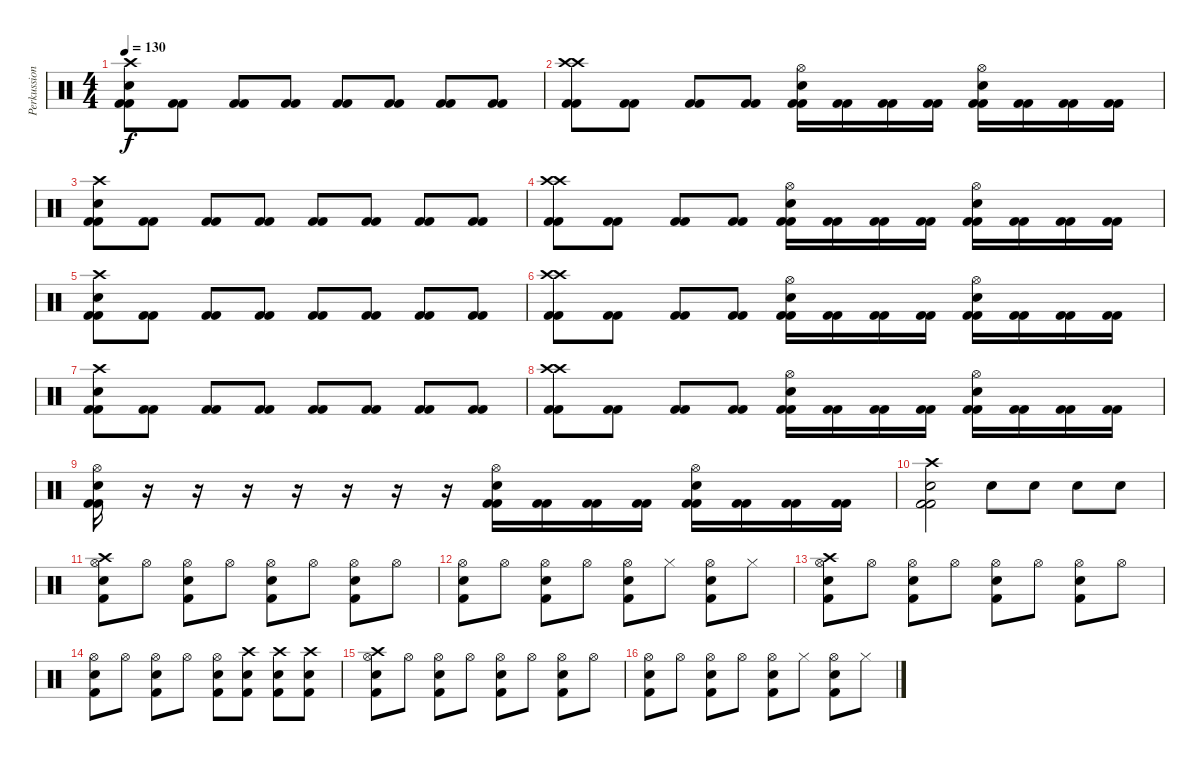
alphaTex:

\track ("Perkussion" "Perkussion") {instrument percussion}
\staff {score}
\articulation defaults
\ts (4 4)
\tempo 130
\clef neutral
\ks c
("Crash high (hit)" "Electric Snare (hit)" "Kick (hit) 2" "Kick (hit) 2").8{dy f} ("Kick (hit) 2" "Kick (hit) 2").8 ("Kick (hit) 2" "Kick (hit) 2").8 ("Kick (hit) 2" "Kick (hit) 2").8 ("Kick (hit) 2" "Kick (hit) 2").8 ("Kick (hit) 2" "Kick (hit) 2").8 ("Kick (hit) 2" "Kick (hit) 2").8 ("Kick (hit) 2" "Kick (hit) 2").8 |
("Crash high (hit)" "Crash high (hit)" "Kick (hit) 2" "Kick (hit) 2").8 ("Kick (hit) 2" "Kick (hit) 2").8 ("Kick (hit) 2" "Kick (hit) 2").8 ("Kick (hit) 2" "Kick (hit) 2").8 ("Hi-Hat (open)" "Electric Snare (hit)" "Kick (hit) 2" "Kick (hit) 2").16 ("Kick (hit) 2" "Kick (hit) 2").16 ("Kick (hit) 2" "Kick (hit) 2").16 ("Kick (hit) 2" "Kick (hit) 2").16 ("Hi-Hat (open)" "Electric Snare (hit)" "Kick (hit) 2" "Kick (hit) 2").16 ("Kick (hit) 2" "Kick (hit) 2").16 ("Kick (hit) 2" "Kick (hit) 2").16 ("Kick (hit) 2" "Kick (hit) 2").16 |
("Crash high (hit)" "Electric Snare (hit)" "Kick (hit) 2" "Kick (hit) 2").8 ("Kick (hit) 2" "Kick (hit) 2").8 ("Kick (hit) 2" "Kick (hit) 2").8 ("Kick (hit) 2" "Kick (hit) 2").8 ("Kick (hit) 2" "Kick (hit) 2").8 ("Kick (hit) 2" "Kick (hit) 2").8 ("Kick (hit) 2" "Kick (hit) 2").8 ("Kick (hit) 2" "Kick (hit) 2").8 |
("Crash high (hit)" "Crash high (hit)" "Kick (hit) 2" "Kick (hit) 2").8 ("Kick (hit) 2" "Kick (hit) 2").8 ("Kick (hit) 2" "Kick (hit) 2").8 ("Kick (hit) 2" "Kick (hit) 2").8 ("Hi-Hat (open)" "Electric Snare (hit)" "Kick (hit) 2" "Kick (hit) 2").16 ("Kick (hit) 2" "Kick (hit) 2").16 ("Kick (hit) 2" "Kick (hit) 2").16 ("Kick (hit) 2" "Kick (hit) 2").16 ("Hi-Hat (open)" "Electric Snare (hit)" "Kick (hit) 2" "Kick (hit) 2").16 ("Kick (hit) 2" "Kick (hit) 2").16 ("Kick (hit) 2" "Kick (hit) 2").16 ("Kick (hit) 2" "Kick (hit) 2").16 |
("Crash high (hit)" "Electric Snare (hit)" "Kick (hit) 2" "Kick (hit) 2").8 ("Kick (hit) 2" "Kick (hit) 2").8 ("Kick (hit) 2" "Kick (hit) 2").8 ("Kick (hit) 2" "Kick (hit) 2").8 ("Kick (hit) 2" "Kick (hit) 2").8 ("Kick (hit) 2" "Kick (hit) 2").8 ("Kick (hit) 2" "Kick (hit) 2").8 ("Kick (hit) 2" "Kick (hit) 2").8 |
("Crash high (hit)" "Crash high (hit)" "Kick (hit) 2" "Kick (hit) 2").8 ("Kick (hit) 2" "Kick (hit) 2").8 ("Kick (hit) 2" "Kick (hit) 2").8 ("Kick (hit) 2" "Kick (hit) 2").8 ("Hi-Hat (open)" "Electric Snare (hit)" "Kick (hit) 2" "Kick (hit) 2").16 ("Kick (hit) 2" "Kick (hit) 2").16 ("Kick (hit) 2" "Kick (hit) 2").16 ("Kick (hit) 2" "Kick (hit) 2").16 ("Hi-Hat (open)" "Electric Snare (hit)" "Kick (hit) 2" "Kick (hit) 2").16 ("Kick (hit) 2" "Kick (hit) 2").16 ("Kick (hit) 2" "Kick (hit) 2").16 ("Kick (hit) 2" "Kick (hit) 2").16 |
("Crash high (hit)" "Electric Snare (hit)" "Kick (hit) 2" "Kick (hit) 2").8 ("Kick (hit) 2" "Kick (hit) 2").8 ("Kick (hit) 2" "Kick (hit) 2").8 ("Kick (hit) 2" "Kick (hit) 2").8 ("Kick (hit) 2" "Kick (hit) 2").8 ("Kick (hit) 2" "Kick (hit) 2").8 ("Kick (hit) 2" "Kick (hit) 2").8 ("Kick (hit) 2" "Kick (hit) 2").8 |
("Crash high (hit)" "Crash high (hit)" "Kick (hit) 2" "Kick (hit) 2").8 ("Kick (hit) 2" "Kick (hit) 2").8 ("Kick (hit) 2" "Kick (hit) 2").8 ("Kick (hit) 2" "Kick (hit) 2").8 ("Hi-Hat (open)" "Electric Snare (hit)" "Kick (hit) 2" "Kick (hit) 2").16 ("Kick (hit) 2" "Kick (hit) 2").16 ("Kick (hit) 2" "Kick (hit) 2").16 ("Kick (hit) 2" "Kick (hit) 2").16 ("Hi-Hat (open)" "Electric Snare (hit)" "Kick (hit) 2" "Kick (hit) 2").16 ("Kick (hit) 2" "Kick (hit) 2").16 ("Kick (hit) 2" "Kick (hit) 2").16 ("Kick (hit) 2" "Kick (hit) 2").16 |
("Hi-Hat (open)" "Electric Snare (hit)" "Kick (hit) 2" "Kick (hit) 2").16 r.16 r.16 r.16 r.16 r.16 r.16 r.16 ("Hi-Hat (open)" "Electric Snare (hit)" "Kick (hit) 2" "Kick (hit) 2").16 ("Kick (hit) 2" "Kick (hit) 2").16 ("Kick (hit) 2" "Kick (hit) 2").16 ("Kick (hit) 2" "Kick (hit) 2").16 ("Hi-Hat (open)" "Electric Snare (hit)" "Kick (hit) 2" "Kick (hit) 2").16 ("Kick (hit) 2" "Kick (hit) 2").16 ("Kick (hit) 2" "Kick (hit) 2").16 ("Kick (hit) 2" "Kick (hit) 2").16 |
("Crash high (hit)" "Electric Snare (hit)" "Kick (hit) 2" "Kick (hit) 2").2 "Electric Snare (hit)".8 "Electric Snare (hit)".8 "Electric Snare (hit)".8 "Electric Snare (hit)".8 |
("Hi-Hat (open)" "Crash high (hit)" "Electric Snare (hit)" "Kick (hit) 2").8 "Hi-Hat (open)".8 ("Hi-Hat (open)" "Electric Snare (hit)" "Kick (hit) 2").8 "Hi-Hat (open)".8 ("Hi-Hat (open)" "Electric Snare (hit)" "Kick (hit) 2").8 "Hi-Hat (open)".8 ("Hi-Hat (open)" "Electric Snare (hit)" "Kick (hit) 2").8 "Hi-Hat (open)".8 |
("Hi-Hat (open)" "Electric Snare (hit)" "Kick (hit) 2").8 "Hi-Hat (open)".8 ("Hi-Hat (open)" "Electric Snare (hit)" "Kick (hit) 2").8 "Hi-Hat (open)".8 ("Hi-Hat (open)" "Electric Snare (hit)" "Kick (hit) 2").8 "Hi-Hat (closed)".8 ("Hi-Hat (open)" "Electric Snare (hit)" "Kick (hit) 2").8 "Hi-Hat (closed)".8 |
("Hi-Hat (open)" "Crash high (hit)" "Electric Snare (hit)" "Kick (hit) 2").8 "Hi-Hat (open)".8 ("Hi-Hat (open)" "Electric Snare (hit)" "Kick (hit) 2").8 "Hi-Hat (open)".8 ("Hi-Hat (open)" "Electric Snare (hit)" "Kick (hit) 2").8 "Hi-Hat (open)".8 ("Hi-Hat (open)" "Electric Snare (hit)" "Kick (hit) 2").8 "Hi-Hat (open)".8 |
("Hi-Hat (open)" "Electric Snare (hit)" "Kick (hit) 2").8 "Hi-Hat (open)".8 ("Hi-Hat (open)" "Electric Snare (hit)" "Kick (hit) 2").8 "Hi-Hat (open)".8 ("Hi-Hat (open)" "Electric Snare (hit)" "Kick (hit) 2").8 ("Crash high (hit)" "Electric Snare (hit)" "Kick (hit) 2").8 ("Crash high (hit)" "Electric Snare (hit)" "Kick (hit) 2").8 ("Crash high (hit)" "Electric Snare (hit)" "Kick (hit) 2").8 |
("Hi-Hat (open)" "Crash high (hit)" "Electric Snare (hit)" "Kick (hit) 2").8 "Hi-Hat (open)".8 ("Hi-Hat (open)" "Electric Snare (hit)" "Kick (hit) 2").8 "Hi-Hat (open)".8 ("Hi-Hat (open)" "Electric Snare (hit)" "Kick (hit) 2").8 "Hi-Hat (open)".8 ("Hi-Hat (open)" "Electric Snare (hit)" "Kick (hit) 2").8 "Hi-Hat (open)".8 |
("Hi-Hat (open)" "Electric Snare (hit)" "Kick (hit) 2").8 "Hi-Hat (open)".8 ("Hi-Hat (open)" "Electric Snare (hit)" "Kick (hit) 2").8 "Hi-Hat (open)".8 ("Hi-Hat (open)" "Electric Snare (hit)" "Kick (hit) 2").8 "Hi-Hat (closed)".8 ("Hi-Hat (open)" "Electric Snare (hit)" "Kick (hit) 2").8 "Hi-Hat (closed)".8
